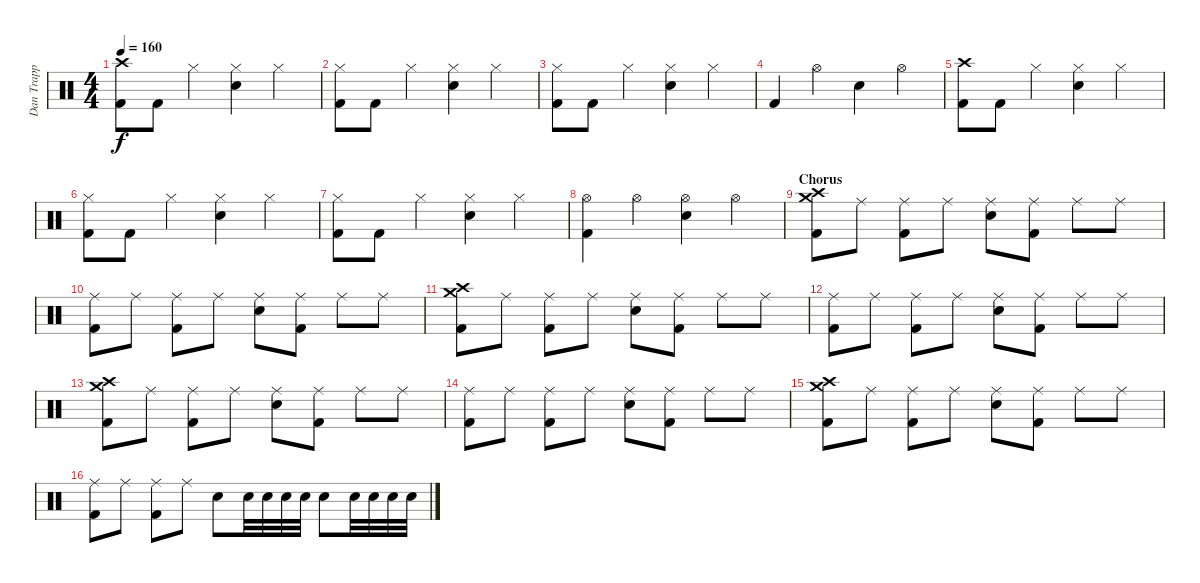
\track ("Dan Trapp" "Dan Trapp") {instrument percussion}
\staff {score}
\articulation defaults
\ts (4 4)
\tempo 160
\clef neutral
\ks c
("Crash high (hit)" "Kick (hit) 2").8{dy f} "Kick (hit) 2".8 "Hi-Hat (closed)".4 ("Hi-Hat (closed)" "Snare (hit) 2").4 "Hi-Hat (closed)".4 |
("Hi-Hat (closed)" "Kick (hit) 2").8 "Kick (hit) 2".8 "Hi-Hat (closed)".4 ("Hi-Hat (closed)" "Snare (hit) 2").4 "Hi-Hat (closed)".4 |
("Hi-Hat (closed)" "Kick (hit) 2").8 "Kick (hit) 2".8 "Hi-Hat (closed)".4 ("Hi-Hat (closed)" "Snare (hit) 2").4 "Hi-Hat (closed)".4 |
"Kick (hit) 2".4 "Hi-Hat (open)".4 "Snare (hit) 2".4 "Hi-Hat (open)".4 |
("Crash high (hit)" "Kick (hit) 2").8 "Kick (hit) 2".8 "Hi-Hat (closed)".4 ("Hi-Hat (closed)" "Snare (hit) 2").4 "Hi-Hat (closed)".4 |
("Hi-Hat (closed)" "Kick (hit) 2").8 "Kick (hit) 2".8 "Hi-Hat (closed)".4 ("Hi-Hat (closed)" "Snare (hit) 2").4 "Hi-Hat (closed)".4 |
("Hi-Hat (closed)" "Kick (hit) 2").8 "Kick (hit) 2".8 "Hi-Hat (closed)".4 ("Hi-Hat (closed)" "Snare (hit) 2").4 "Hi-Hat (closed)".4 |
("Kick (hit) 2" "Hi-Hat (open)").4 "Hi-Hat (open)".4 ("Snare (hit) 2" "Hi-Hat (open)").4 "Hi-Hat (open)".4 |
\section ("" "Chorus")
("Crash medium (hit)" "Crash high (hit)" "Kick (hit) 2").8 "Ride (middle)".8 ("Ride (middle)" "Kick (hit) 2").8 "Ride (middle)".8 ("Ride (middle)" "Snare (hit) 2").8 ("Ride (middle)" "Kick (hit) 2").8 "Ride (middle)".8 "Ride (middle)".8 |
("Ride (middle)" "Kick (hit) 2").8 "Ride (middle)".8 ("Ride (middle)" "Kick (hit) 2").8 "Ride (middle)".8 ("Ride (middle)" "Snare (hit) 2").8 ("Ride (middle)" "Kick (hit) 2").8 "Ride (middle)".8 "Ride (middle)".8 |
("Crash medium (hit)" "Crash high (hit)" "Kick (hit) 2").8 "Ride (middle)".8 ("Ride (middle)" "Kick (hit) 2").8 "Ride (middle)".8 ("Ride (middle)" "Snare (hit) 2").8 ("Ride (middle)" "Kick (hit) 2").8 "Ride (middle)".8 "Ride (middle)".8 |
("Ride (middle)" "Kick (hit) 2").8 "Ride (middle)".8 ("Ride (middle)" "Kick (hit) 2").8 "Ride (middle)".8 ("Ride (middle)" "Snare (hit) 2").8 ("Ride (middle)" "Kick (hit) 2").8 "Ride (middle)".8 "Ride (middle)".8 |
("Crash medium (hit)" "Crash high (hit)" "Kick (hit) 2").8 "Ride (middle)".8 ("Ride (middle)" "Kick (hit) 2").8 "Ride (middle)".8 ("Ride (middle)" "Snare (hit) 2").8 ("Ride (middle)" "Kick (hit) 2").8 "Ride (middle)".8 "Ride (middle)".8 |
("Ride (middle)" "Kick (hit) 2").8 "Ride (middle)".8 ("Ride (middle)" "Kick (hit) 2").8 "Ride (middle)".8 ("Ride (middle)" "Snare (hit) 2").8 ("Ride (middle)" "Kick (hit) 2").8 "Ride (middle)".8 "Ride (middle)".8 |
("Crash medium (hit)" "Crash high (hit)" "Kick (hit) 2").8 "Ride (middle)".8 ("Ride (middle)" "Kick (hit) 2").8 "Ride (middle)".8 ("Ride (middle)" "Snare (hit) 2").8 ("Ride (middle)" "Kick (hit) 2").8 "Ride (middle)".8 "Ride (middle)".8 |
("Ride (middle)" "Kick (hit) 2").8 "Ride (middle)".8 ("Ride (middle)" "Kick (hit) 2").8 "Ride (middle)".8 "Snare (hit) 2".8 "Snare (hit) 2".32 "Snare (hit) 2".32 "Snare (hit) 2".32 "Snare (hit) 2".32 "Snare (hit) 2".8 "Snare (hit) 2".32 "Snare (hit) 2".32 "Snare (hit) 2".32 "Snare (hit) 2".32
